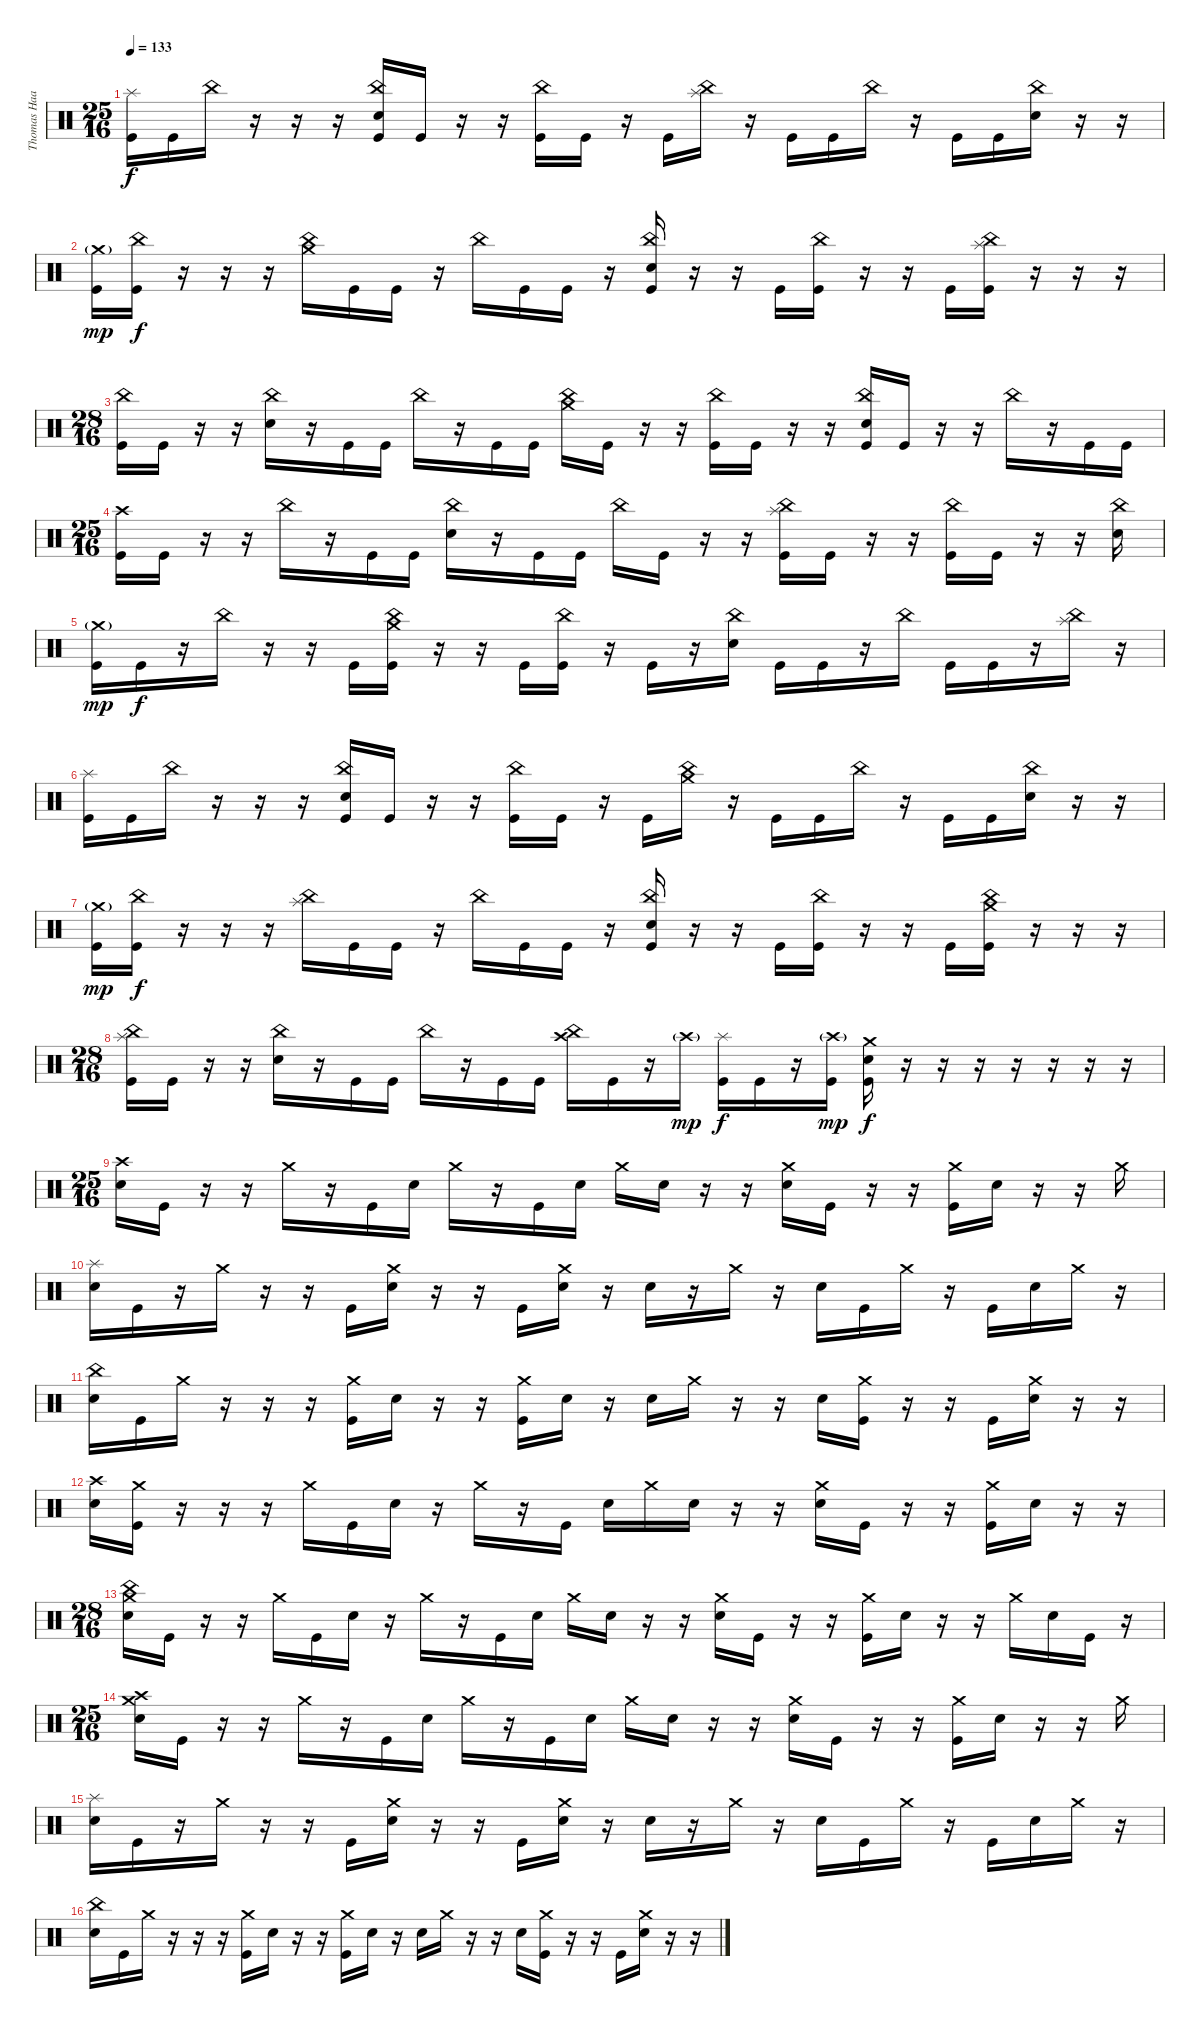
\track ("Thomas Haake" "Thomas Haa") {instrument percussion}
\staff {score}
\articulation defaults
\ts (25 16)
\tempo 133
\clef neutral
\ks c
("Splash (hit)" "Kick (hit)").16{dy f} "Kick (hit)".16 "China (hit)".16 r.16 r.16 r.16 ("China (hit)" "Snare (hit) 2" "Kick (hit)").16 "Kick (hit)".16 r.16 r.16 ("China (hit)" "Kick (hit)").16 "Kick (hit)".16 r.16 "Kick (hit)".16 ("Splash (hit)" "China (hit)").16 r.16 "Kick (hit)".16 "Kick (hit)".16 "China (hit)".16 r.16 "Kick (hit)".16 "Kick (hit)".16 ("China (hit)" "Snare (hit) 2").16 r.16 r.16 |
("Crash medium (hit)"{g} "Kick (hit)").16{dy mp} ("China (hit)" "Kick (hit)").16{dy f} r.16 r.16 r.16 ("Crash medium (hit)" "China (hit)").16 "Kick (hit)".16 "Kick (hit)".16 r.16 "China (hit)".16 "Kick (hit)".16 "Kick (hit)".16 r.16 ("China (hit)" "Snare (hit) 2" "Kick (hit)").16 r.16 r.16 "Kick (hit)".16 ("China (hit)" "Kick (hit)").16 r.16 r.16 "Kick (hit)".16 ("Splash (hit)" "China (hit)" "Kick (hit)").16 r.16 r.16 r.16 |
\ts (28 16)
("China (hit)" "Kick (hit)").16 "Kick (hit)".16 r.16 r.16 ("China (hit)" "Snare (hit) 2").16 r.16 "Kick (hit)".16 "Kick (hit)".16 "China (hit)".16 r.16 "Kick (hit)".16 "Kick (hit)".16 ("Crash medium (hit)" "China (hit)").16 "Kick (hit)".16 r.16 r.16 ("China (hit)" "Kick (hit)").16 "Kick (hit)".16 r.16 r.16 ("China (hit)" "Snare (hit) 2" "Kick (hit)").16 "Kick (hit)".16 r.16 r.16 "China (hit)".16 r.16 "Kick (hit)".16 "Kick (hit)".16 |
\ts (25 16)
("Crash high (hit)" "Kick (hit)").16 "Kick (hit)".16 r.16 r.16 "China (hit)".16 r.16 "Kick (hit)".16 "Kick (hit)".16 ("China (hit)" "Snare (hit) 2").16 r.16 "Kick (hit)".16 "Kick (hit)".16 "China (hit)".16 "Kick (hit)".16 r.16 r.16 ("Splash (hit)" "China (hit)" "Kick (hit)").16 "Kick (hit)".16 r.16 r.16 ("China (hit)" "Kick (hit)").16 "Kick (hit)".16 r.16 r.16 ("China (hit)" "Snare (hit) 2").16 |
("Crash medium (hit)"{g} "Kick (hit)").16{dy mp} "Kick (hit)".16{dy f} r.16 "China (hit)".16 r.16 r.16 "Kick (hit)".16 ("Crash medium (hit)" "China (hit)" "Kick (hit)").16 r.16 r.16 "Kick (hit)".16 ("China (hit)" "Kick (hit)").16 r.16 "Kick (hit)".16 r.16 ("China (hit)" "Snare (hit) 2").16 "Kick (hit)".16 "Kick (hit)".16 r.16 "China (hit)".16 "Kick (hit)".16 "Kick (hit)".16 r.16 ("Splash (hit)" "China (hit)").16 r.16 |
("Splash (hit)" "Kick (hit)").16 "Kick (hit)".16 "China (hit)".16 r.16 r.16 r.16 ("China (hit)" "Snare (hit) 2" "Kick (hit)").16 "Kick (hit)".16 r.16 r.16 ("China (hit)" "Kick (hit)").16 "Kick (hit)".16 r.16 "Kick (hit)".16 ("Crash medium (hit)" "China (hit)").16 r.16 "Kick (hit)".16 "Kick (hit)".16 "China (hit)".16 r.16 "Kick (hit)".16 "Kick (hit)".16 ("China (hit)" "Snare (hit) 2").16 r.16 r.16 |
("Crash medium (hit)"{g} "Kick (hit)").16{dy mp} ("China (hit)" "Kick (hit)").16{dy f} r.16 r.16 r.16 ("Splash (hit)" "China (hit)").16 "Kick (hit)".16 "Kick (hit)".16 r.16 "China (hit)".16 "Kick (hit)".16 "Kick (hit)".16 r.16 ("China (hit)" "Snare (hit) 2" "Kick (hit)").16 r.16 r.16 "Kick (hit)".16 ("China (hit)" "Kick (hit)").16 r.16 r.16 "Kick (hit)".16 ("Crash medium (hit)" "China (hit)" "Kick (hit)").16 r.16 r.16 r.16 |
\ts (28 16)
("China (hit)" "Splash (hit)" "Kick (hit)").16 "Kick (hit)".16 r.16 r.16 ("China (hit)" "Snare (hit) 2").16 r.16 "Kick (hit)".16 "Kick (hit)".16 "China (hit)".16 r.16 "Kick (hit)".16 "Kick (hit)".16 ("Crash high (hit)" "China (hit)").16 "Kick (hit)".16 r.16 "Crash high (hit)"{g}.16{dy mp} ("Splash (hit)" "Kick (hit)").16{dy f} "Kick (hit)".16 r.16 ("Crash high (hit)"{g} "Kick (hit)").16{dy mp} ("Crash medium (hit)" "Snare (hit) 2" "Kick (hit)").16{dy f} r.16 r.16 r.16 r.16 r.16 r.16 r.16 |
\ts (25 16)
("Crash high (hit)" "Snare (hit) 2").16 "Kick (hit)".16 r.16 r.16 "Crash medium (hit)".16 r.16 "Kick (hit)".16 "Snare (hit) 2".16 "Crash medium (hit)".16 r.16 "Kick (hit)".16 "Snare (hit) 2".16 "Crash medium (hit)".16 "Snare (hit) 2".16 r.16 r.16 ("Crash medium (hit)" "Snare (hit) 2").16 "Kick (hit)".16 r.16 r.16 ("Crash medium (hit)" "Kick (hit)").16 "Snare (hit) 2".16 r.16 r.16 "Crash medium (hit)".16 |
("Splash (hit)" "Snare (hit) 2").16 "Kick (hit)".16 r.16 "Crash medium (hit)".16 r.16 r.16 "Kick (hit)".16 ("Crash medium (hit)" "Snare (hit) 2").16 r.16 r.16 "Kick (hit)".16 ("Crash medium (hit)" "Snare (hit) 2").16 r.16 "Snare (hit) 2".16 r.16 "Crash medium (hit)".16 r.16 "Snare (hit) 2".16 "Kick (hit)".16 "Crash medium (hit)".16 r.16 "Kick (hit)".16 "Snare (hit) 2".16 "Crash medium (hit)".16 r.16 |
("China (hit)" "Snare (hit) 2").16 "Kick (hit)".16 "Crash medium (hit)".16 r.16 r.16 r.16 ("Crash medium (hit)" "Kick (hit)").16 "Snare (hit) 2".16 r.16 r.16 ("Crash medium (hit)" "Kick (hit)").16 "Snare (hit) 2".16 r.16 "Snare (hit) 2".16 "Crash medium (hit)".16 r.16 r.16 "Snare (hit) 2".16 ("Crash medium (hit)" "Kick (hit)").16 r.16 r.16 "Kick (hit)".16 ("Crash medium (hit)" "Snare (hit) 2").16 r.16 r.16 |
("Crash high (hit)" "Snare (hit) 2").16 ("Crash medium (hit)" "Kick (hit)").16 r.16 r.16 r.16 "Crash medium (hit)".16 "Kick (hit)".16 "Snare (hit) 2".16 r.16 "Crash medium (hit)".16 r.16 "Kick (hit)".16 "Snare (hit) 2".16 "Crash medium (hit)".16 "Snare (hit) 2".16 r.16 r.16 ("Crash medium (hit)" "Snare (hit) 2").16 "Kick (hit)".16 r.16 r.16 ("Crash medium (hit)" "Kick (hit)").16 "Snare (hit) 2".16 r.16 r.16 |
\ts (28 16)
("Crash medium (hit)" "China (hit)" "Snare (hit) 2").16 "Kick (hit)".16 r.16 r.16 "Crash medium (hit)".16 "Kick (hit)".16 "Snare (hit) 2".16 r.16 "Crash medium (hit)".16 r.16 "Kick (hit)".16 "Snare (hit) 2".16 "Crash medium (hit)".16 "Snare (hit) 2".16 r.16 r.16 ("Crash medium (hit)" "Snare (hit) 2").16 "Kick (hit)".16 r.16 r.16 ("Crash medium (hit)" "Kick (hit)").16 "Snare (hit) 2".16 r.16 r.16 "Crash medium (hit)".16 "Snare (hit) 2".16 "Kick (hit)".16 r.16 |
\ts (25 16)
("Crash high (hit)" "Crash medium (hit)" "Snare (hit) 2").16 "Kick (hit)".16 r.16 r.16 "Crash medium (hit)".16 r.16 "Kick (hit)".16 "Snare (hit) 2".16 "Crash medium (hit)".16 r.16 "Kick (hit)".16 "Snare (hit) 2".16 "Crash medium (hit)".16 "Snare (hit) 2".16 r.16 r.16 ("Crash medium (hit)" "Snare (hit) 2").16 "Kick (hit)".16 r.16 r.16 ("Crash medium (hit)" "Kick (hit)").16 "Snare (hit) 2".16 r.16 r.16 "Crash medium (hit)".16 |
("Splash (hit)" "Snare (hit) 2").16 "Kick (hit)".16 r.16 "Crash medium (hit)".16 r.16 r.16 "Kick (hit)".16 ("Crash medium (hit)" "Snare (hit) 2").16 r.16 r.16 "Kick (hit)".16 ("Crash medium (hit)" "Snare (hit) 2").16 r.16 "Snare (hit) 2".16 r.16 "Crash medium (hit)".16 r.16 "Snare (hit) 2".16 "Kick (hit)".16 "Crash medium (hit)".16 r.16 "Kick (hit)".16 "Snare (hit) 2".16 "Crash medium (hit)".16 r.16 |
("China (hit)" "Snare (hit) 2").16 "Kick (hit)".16 "Crash medium (hit)".16 r.16 r.16 r.16 ("Crash medium (hit)" "Kick (hit)").16 "Snare (hit) 2".16 r.16 r.16 ("Crash medium (hit)" "Kick (hit)").16 "Snare (hit) 2".16 r.16 "Snare (hit) 2".16 "Crash medium (hit)".16 r.16 r.16 "Snare (hit) 2".16 ("Crash medium (hit)" "Kick (hit)").16 r.16 r.16 "Kick (hit)".16 ("Crash medium (hit)" "Snare (hit) 2").16 r.16 r.16
